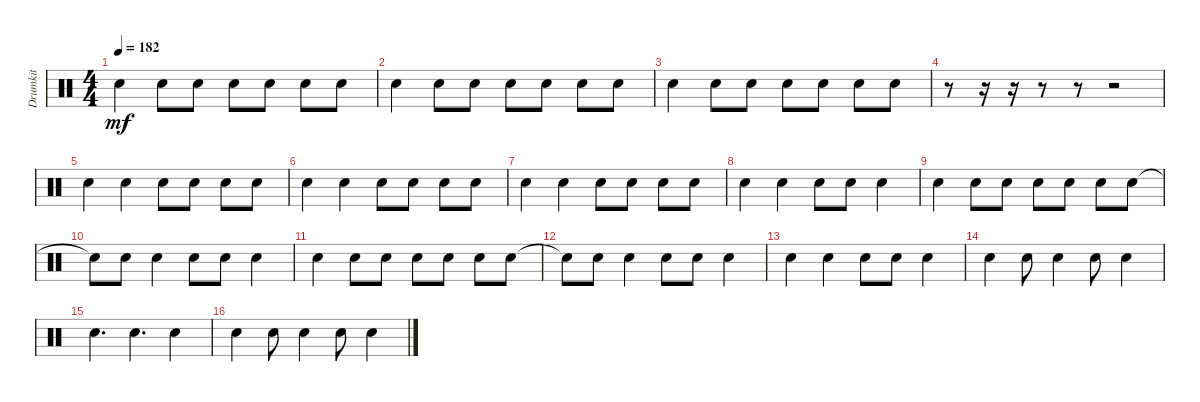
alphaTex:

\track ("Drumkit" "Drumkit") {instrument percussion}
\staff {score}
\articulation defaults
\ts (4 4)
\tempo 182
\clef neutral
\ks c "Snare (hit)".4{dy mf} "Snare (hit)".8 "Snare (hit)".8 "Snare (hit)".8 "Snare (hit)".8 "Snare (hit)".8 "Snare (hit)".8
|
"Snare (hit)".4 "Snare (hit)".8 "Snare (hit)".8 "Snare (hit)".8 "Snare (hit)".8 "Snare (hit)".8 "Snare (hit)".8 |
"Snare (hit)".4 "Snare (hit)".8 "Snare (hit)".8 "Snare (hit)".8 "Snare (hit)".8 "Snare (hit)".8 "Snare (hit)".8 |
r.8 r.16 r.16 r.8 r.8 r.2 |
"Snare (hit)".4 "Snare (hit)".4 "Snare (hit)".8 "Snare (hit)".8 "Snare (hit)".8 "Snare (hit)".8 |
"Snare (hit)".4 "Snare (hit)".4 "Snare (hit)".8 "Snare (hit)".8 "Snare (hit)".8 "Snare (hit)".8 |
"Snare (hit)".4 "Snare (hit)".4 "Snare (hit)".8 "Snare (hit)".8 "Snare (hit)".8 "Snare (hit)".8 |
"Snare (hit)".4 "Snare (hit)".4 "Snare (hit)".8 "Snare (hit)".8 "Snare (hit)".4 |
"Snare (hit)".4 "Snare (hit)".8 "Snare (hit)".8 "Snare (hit)".8 "Snare (hit)".8 "Snare (hit)".8 "Snare (hit)".8 |
"Snare (hit)"{t}.8 "Snare (hit)".8 "Snare (hit)".4 "Snare (hit)".8 "Snare (hit)".8 "Snare (hit)".4 |
"Snare (hit)".4 "Snare (hit)".8 "Snare (hit)".8 "Snare (hit)".8 "Snare (hit)".8 "Snare (hit)".8 "Snare (hit)".8 |
"Snare (hit)"{t}.8 "Snare (hit)".8 "Snare (hit)".4 "Snare (hit)".8 "Snare (hit)".8 "Snare (hit)".4 |
"Snare (hit)".4 "Snare (hit)".4 "Snare (hit)".8 "Snare (hit)".8 "Snare (hit)".4 |
"Snare (hit)".4 "Snare (hit)".8 "Snare (hit)".4 "Snare (hit)".8 "Snare (hit)".4 |
"Snare (hit)".4{d} "Snare (hit)".4{d} "Snare (hit)".4 |
"Snare (hit)".4 "Snare (hit)".8 "Snare (hit)".4 "Snare (hit)".8 "Snare (hit)".4
